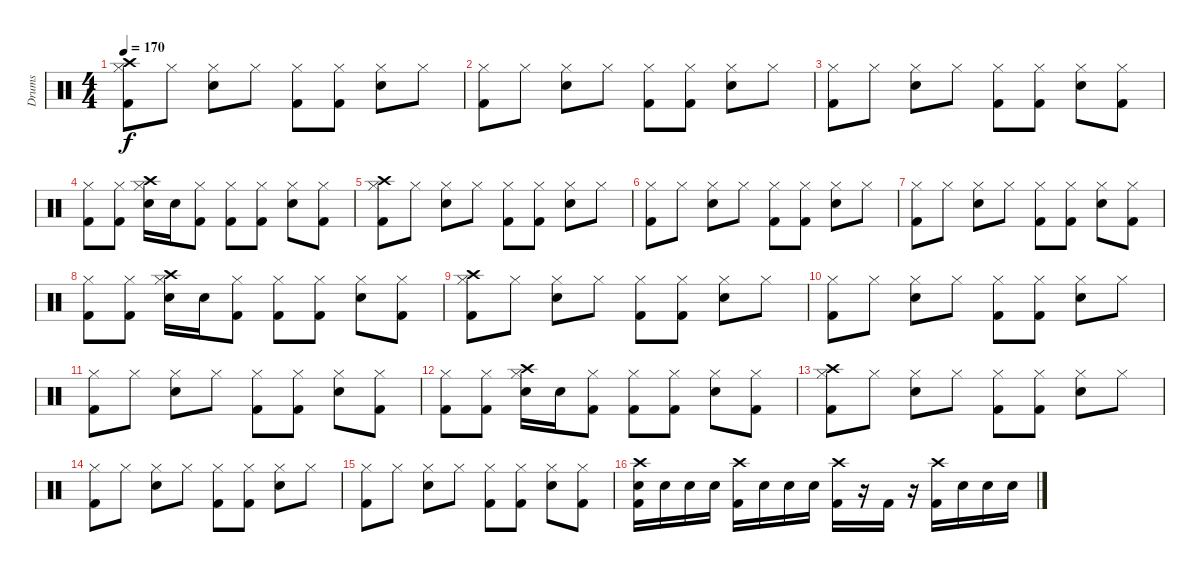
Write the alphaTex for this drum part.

\track ("Drums" "Drums") {instrument percussion}
\staff {score}
\articulation defaults
\ts (4 4)
\tempo 170
\clef neutral
\ks c
("Crash high (hit)" "Hi-Hat (closed)" "Kick (hit) 2").8{dy f} "Hi-Hat (closed)".8 ("Hi-Hat (closed)" "Electric Snare (hit)").8 "Hi-Hat (closed)".8 ("Hi-Hat (closed)" "Kick (hit) 2").8 ("Hi-Hat (closed)" "Kick (hit) 2").8 ("Hi-Hat (closed)" "Electric Snare (hit)").8 "Hi-Hat (closed)".8 |
("Hi-Hat (closed)" "Kick (hit) 2").8 "Hi-Hat (closed)".8 ("Hi-Hat (closed)" "Electric Snare (hit)").8 "Hi-Hat (closed)".8 ("Hi-Hat (closed)" "Kick (hit) 2").8 ("Hi-Hat (closed)" "Kick (hit) 2").8 ("Hi-Hat (closed)" "Electric Snare (hit)").8 "Hi-Hat (closed)".8 |
("Hi-Hat (closed)" "Kick (hit) 2").8 "Hi-Hat (closed)".8 ("Hi-Hat (closed)" "Electric Snare (hit)").8 "Hi-Hat (closed)".8 ("Hi-Hat (closed)" "Kick (hit) 2").8 ("Hi-Hat (closed)" "Kick (hit) 2").8 ("Hi-Hat (closed)" "Electric Snare (hit)").8 ("Hi-Hat (closed)" "Kick (hit) 2").8 |
("Hi-Hat (closed)" "Kick (hit) 2").8 ("Hi-Hat (closed)" "Kick (hit) 2").8 ("Crash high (hit)" "Hi-Hat (closed)" "Electric Snare (hit)").16 "Electric Snare (hit)".16 ("Hi-Hat (closed)" "Kick (hit) 2").8 ("Hi-Hat (closed)" "Kick (hit) 2").8 ("Hi-Hat (closed)" "Kick (hit) 2").8 ("Hi-Hat (closed)" "Electric Snare (hit)").8 ("Hi-Hat (closed)" "Kick (hit) 2").8 |
("Crash high (hit)" "Hi-Hat (closed)" "Kick (hit) 2").8 "Hi-Hat (closed)".8 ("Hi-Hat (closed)" "Electric Snare (hit)").8 "Hi-Hat (closed)".8 ("Hi-Hat (closed)" "Kick (hit) 2").8 ("Hi-Hat (closed)" "Kick (hit) 2").8 ("Hi-Hat (closed)" "Electric Snare (hit)").8 "Hi-Hat (closed)".8 |
("Hi-Hat (closed)" "Kick (hit) 2").8 "Hi-Hat (closed)".8 ("Hi-Hat (closed)" "Electric Snare (hit)").8 "Hi-Hat (closed)".8 ("Hi-Hat (closed)" "Kick (hit) 2").8 ("Hi-Hat (closed)" "Kick (hit) 2").8 ("Hi-Hat (closed)" "Electric Snare (hit)").8 "Hi-Hat (closed)".8 |
("Hi-Hat (closed)" "Kick (hit) 2").8 "Hi-Hat (closed)".8 ("Hi-Hat (closed)" "Electric Snare (hit)").8 "Hi-Hat (closed)".8 ("Hi-Hat (closed)" "Kick (hit) 2").8 ("Hi-Hat (closed)" "Kick (hit) 2").8 ("Hi-Hat (closed)" "Electric Snare (hit)").8 ("Hi-Hat (closed)" "Kick (hit) 2").8 |
("Hi-Hat (closed)" "Kick (hit) 2").8 ("Hi-Hat (closed)" "Kick (hit) 2").8 ("Crash high (hit)" "Hi-Hat (closed)" "Electric Snare (hit)").16 "Electric Snare (hit)".16 ("Hi-Hat (closed)" "Kick (hit) 2").8 ("Hi-Hat (closed)" "Kick (hit) 2").8 ("Hi-Hat (closed)" "Kick (hit) 2").8 ("Hi-Hat (closed)" "Electric Snare (hit)").8 ("Hi-Hat (closed)" "Kick (hit) 2").8 |
("Crash high (hit)" "Hi-Hat (closed)" "Kick (hit) 2").8 "Hi-Hat (closed)".8 ("Hi-Hat (closed)" "Electric Snare (hit)").8 "Hi-Hat (closed)".8 ("Hi-Hat (closed)" "Kick (hit) 2").8 ("Hi-Hat (closed)" "Kick (hit) 2").8 ("Hi-Hat (closed)" "Electric Snare (hit)").8 "Hi-Hat (closed)".8 |
("Hi-Hat (closed)" "Kick (hit) 2").8 "Hi-Hat (closed)".8 ("Hi-Hat (closed)" "Electric Snare (hit)").8 "Hi-Hat (closed)".8 ("Hi-Hat (closed)" "Kick (hit) 2").8 ("Hi-Hat (closed)" "Kick (hit) 2").8 ("Hi-Hat (closed)" "Electric Snare (hit)").8 "Hi-Hat (closed)".8 |
("Hi-Hat (closed)" "Kick (hit) 2").8 "Hi-Hat (closed)".8 ("Hi-Hat (closed)" "Electric Snare (hit)").8 "Hi-Hat (closed)".8 ("Hi-Hat (closed)" "Kick (hit) 2").8 ("Hi-Hat (closed)" "Kick (hit) 2").8 ("Hi-Hat (closed)" "Electric Snare (hit)").8 ("Hi-Hat (closed)" "Kick (hit) 2").8 |
("Hi-Hat (closed)" "Kick (hit) 2").8 ("Hi-Hat (closed)" "Kick (hit) 2").8 ("Crash high (hit)" "Hi-Hat (closed)" "Electric Snare (hit)").16 "Electric Snare (hit)".16 ("Hi-Hat (closed)" "Kick (hit) 2").8 ("Hi-Hat (closed)" "Kick (hit) 2").8 ("Hi-Hat (closed)" "Kick (hit) 2").8 ("Hi-Hat (closed)" "Electric Snare (hit)").8 ("Hi-Hat (closed)" "Kick (hit) 2").8 |
("Crash high (hit)" "Hi-Hat (closed)" "Kick (hit) 2").8 "Hi-Hat (closed)".8 ("Hi-Hat (closed)" "Electric Snare (hit)").8 "Hi-Hat (closed)".8 ("Hi-Hat (closed)" "Kick (hit) 2").8 ("Hi-Hat (closed)" "Kick (hit) 2").8 ("Hi-Hat (closed)" "Electric Snare (hit)").8 "Hi-Hat (closed)".8 |
("Hi-Hat (closed)" "Kick (hit) 2").8 "Hi-Hat (closed)".8 ("Hi-Hat (closed)" "Electric Snare (hit)").8 "Hi-Hat (closed)".8 ("Hi-Hat (closed)" "Kick (hit) 2").8 ("Hi-Hat (closed)" "Kick (hit) 2").8 ("Hi-Hat (closed)" "Electric Snare (hit)").8 "Hi-Hat (closed)".8 |
("Hi-Hat (closed)" "Kick (hit) 2").8 "Hi-Hat (closed)".8 ("Hi-Hat (closed)" "Electric Snare (hit)").8 "Hi-Hat (closed)".8 ("Hi-Hat (closed)" "Kick (hit) 2").8 ("Hi-Hat (closed)" "Kick (hit) 2").8 ("Hi-Hat (closed)" "Electric Snare (hit)").8 ("Hi-Hat (closed)" "Kick (hit) 2").8 |
("Crash high (hit)" "Electric Snare (hit)" "Kick (hit) 2").16 "Electric Snare (hit)".16 "Electric Snare (hit)".16 "Electric Snare (hit)".16 ("Crash high (hit)" "Kick (hit) 2").16 "Electric Snare (hit)".16 "Electric Snare (hit)".16 "Electric Snare (hit)".16 ("Crash high (hit)" "Kick (hit) 2").16 r.16 "Kick (hit) 2".16 r.16 ("Crash high (hit)" "Kick (hit) 2").16 "Electric Snare (hit)".16 "Electric Snare (hit)".16 "Electric Snare (hit)".16
